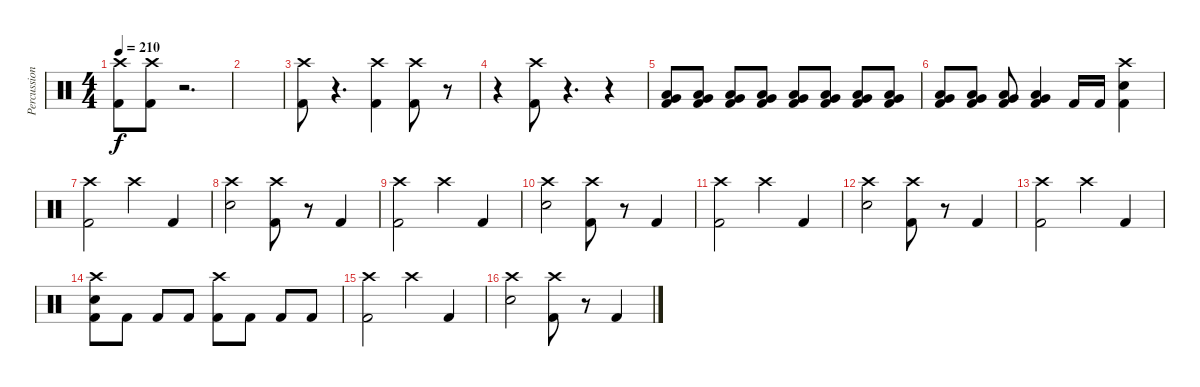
\track ("Percussion" "Percussion") {instrument percussion}
\staff {score}
\articulation defaults
\ts (4 4)
\tempo 210
\clef neutral
\ks c
("Crash high (hit)" "Kick (hit) 2").8{dy f} ("Crash high (hit)" "Kick (hit) 2").8 r.2{d} |
|
("Crash high (hit)" "Kick (hit) 2").8 r.4{d} ("Crash high (hit)" "Kick (hit) 2").4 ("Crash high (hit)" "Kick (hit) 2").8 r.8 |
r.4 ("Crash high (hit)" "Kick (hit) 2").8 r.4{d} r.4 |
("Low Floor Tom (hit)" "Very Low Tom (hit)" "Kick (hit) 2").8 ("Low Floor Tom (hit)" "Very Low Tom (hit)" "Kick (hit) 2").8 ("Low Floor Tom (hit)" "Very Low Tom (hit)" "Kick (hit) 2").8 ("Low Floor Tom (hit)" "Very Low Tom (hit)" "Kick (hit) 2").8 ("Low Floor Tom (hit)" "Very Low Tom (hit)" "Kick (hit) 2").8 ("Low Floor Tom (hit)" "Very Low Tom (hit)" "Kick (hit) 2").8 ("Low Floor Tom (hit)" "Very Low Tom (hit)" "Kick (hit) 2").8 ("Low Floor Tom (hit)" "Very Low Tom (hit)" "Kick (hit) 2").8 |
("Low Floor Tom (hit)" "Very Low Tom (hit)" "Kick (hit) 2").8 ("Low Floor Tom (hit)" "Very Low Tom (hit)" "Kick (hit) 2").8 ("Low Floor Tom (hit)" "Very Low Tom (hit)" "Kick (hit) 2").8 ("Low Floor Tom (hit)" "Very Low Tom (hit)" "Kick (hit) 2").4 "Kick (hit) 2".16 "Kick (hit) 2".16 ("Crash high (hit)" "Electric Snare (hit)" "Kick (hit) 2").4 |
("Crash high (hit)" "Kick (hit) 2").2 "Crash high (hit)".4 "Kick (hit) 2".4 |
("Crash high (hit)" "Electric Snare (hit)").2 ("Crash high (hit)" "Kick (hit) 2").8 r.8 "Kick (hit) 2".4 |
("Crash high (hit)" "Kick (hit) 2").2 "Crash high (hit)".4 "Kick (hit) 2".4 |
("Crash high (hit)" "Electric Snare (hit)").2 ("Crash high (hit)" "Kick (hit) 2").8 r.8 "Kick (hit) 2".4 |
("Crash high (hit)" "Kick (hit) 2").2 "Crash high (hit)".4 "Kick (hit) 2".4 |
("Crash high (hit)" "Electric Snare (hit)").2 ("Crash high (hit)" "Kick (hit) 2").8 r.8 "Kick (hit) 2".4 |
("Crash high (hit)" "Kick (hit) 2").2 "Crash high (hit)".4 "Kick (hit) 2".4 |
("Crash high (hit)" "Electric Snare (hit)" "Kick (hit) 2").8 "Kick (hit) 2".8 "Kick (hit) 2".8 "Kick (hit) 2".8 ("Crash high (hit)" "Kick (hit) 2").8 "Kick (hit) 2".8 "Kick (hit) 2".8 "Kick (hit) 2".8 |
("Crash high (hit)" "Kick (hit) 2").2 "Crash high (hit)".4 "Kick (hit) 2".4 |
("Crash high (hit)" "Electric Snare (hit)").2 ("Crash high (hit)" "Kick (hit) 2").8 r.8 "Kick (hit) 2".4
